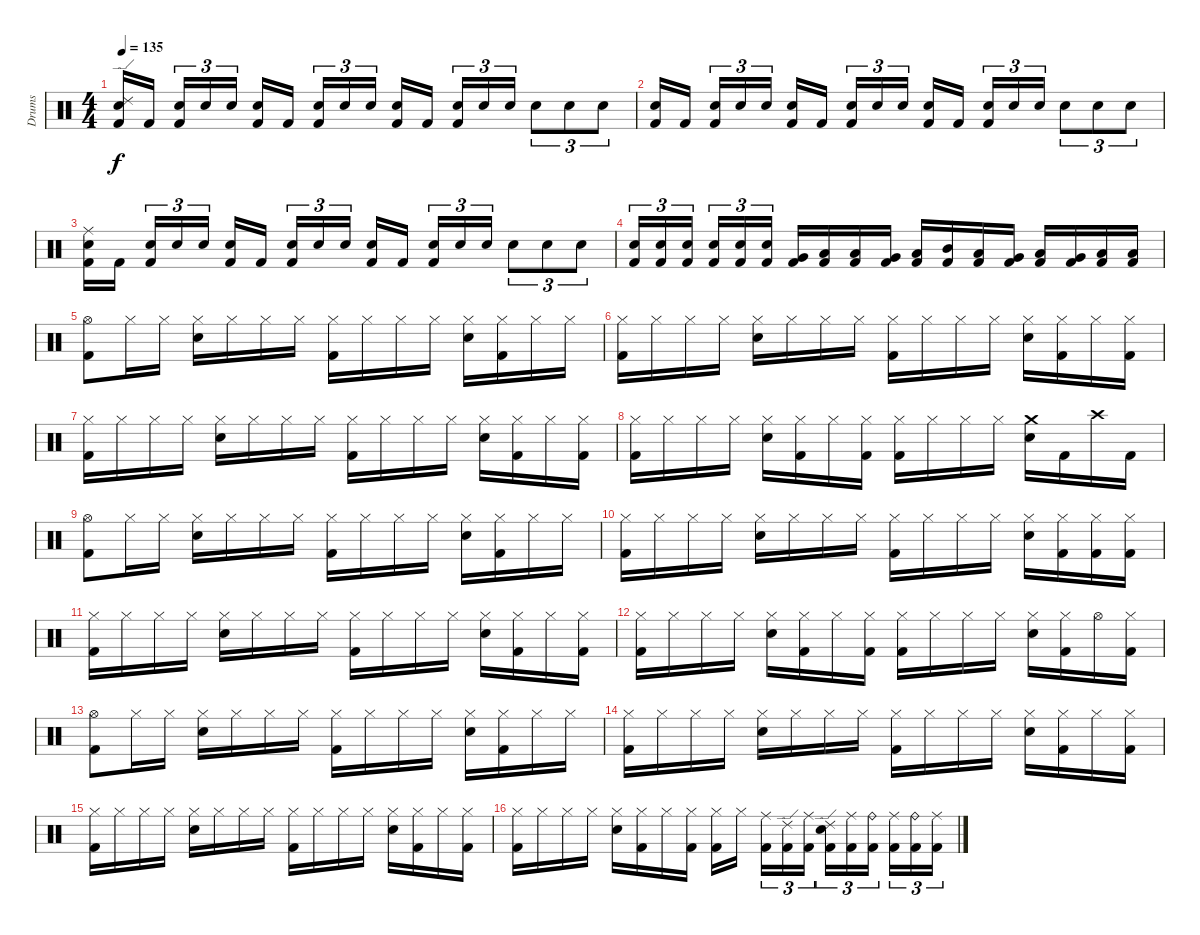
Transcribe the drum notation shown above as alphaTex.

\track ("Drums" "Drums") {instrument percussion}
\staff {score}
\articulation defaults
\ts (4 4)
\tempo 135
\clef neutral
\ks c
("Ride (edge) 2" "Electric Snare (hit)" "Kick (hit) 2").16{dy f} "Kick (hit) 2".16{beam splitsecondary} ("Electric Snare (hit)" "Kick (hit) 2").16{tu (3 2)} "Electric Snare (hit)".16{tu (3 2)} "Electric Snare (hit)".16{tu (3 2)} ("Electric Snare (hit)" "Kick (hit) 2").16 "Kick (hit) 2".16{beam splitsecondary} ("Electric Snare (hit)" "Kick (hit) 2").16{tu (3 2)} "Electric Snare (hit)".16{tu (3 2)} "Electric Snare (hit)".16{tu (3 2)} ("Electric Snare (hit)" "Kick (hit) 2").16 "Kick (hit) 2".16{beam splitsecondary} ("Electric Snare (hit)" "Kick (hit) 2").16{tu (3 2)} "Electric Snare (hit)".16{tu (3 2)} "Electric Snare (hit)".16{tu (3 2)} "Electric Snare (hit)".8{tu (3 2)} "Electric Snare (hit)".8{tu (3 2)} "Electric Snare (hit)".8{tu (3 2)} |
("Electric Snare (hit)" "Kick (hit) 2").16 "Kick (hit) 2".16{beam splitsecondary} ("Electric Snare (hit)" "Kick (hit) 2").16{tu (3 2)} "Electric Snare (hit)".16{tu (3 2)} "Electric Snare (hit)".16{tu (3 2)} ("Electric Snare (hit)" "Kick (hit) 2").16 "Kick (hit) 2".16{beam splitsecondary} ("Electric Snare (hit)" "Kick (hit) 2").16{tu (3 2)} "Electric Snare (hit)".16{tu (3 2)} "Electric Snare (hit)".16{tu (3 2)} ("Electric Snare (hit)" "Kick (hit) 2").16 "Kick (hit) 2".16{beam splitsecondary} ("Electric Snare (hit)" "Kick (hit) 2").16{tu (3 2)} "Electric Snare (hit)".16{tu (3 2)} "Electric Snare (hit)".16{tu (3 2)} "Electric Snare (hit)".8{tu (3 2)} "Electric Snare (hit)".8{tu (3 2)} "Electric Snare (hit)".8{tu (3 2)} |
("Ride (middle)" "Electric Snare (hit)" "Kick (hit) 2").16 "Kick (hit) 2".16{beam splitsecondary} ("Electric Snare (hit)" "Kick (hit) 2").16{tu (3 2)} "Electric Snare (hit)".16{tu (3 2)} "Electric Snare (hit)".16{tu (3 2)} ("Electric Snare (hit)" "Kick (hit) 2").16 "Kick (hit) 2".16{beam splitsecondary} ("Electric Snare (hit)" "Kick (hit) 2").16{tu (3 2)} "Electric Snare (hit)".16{tu (3 2)} "Electric Snare (hit)".16{tu (3 2)} ("Electric Snare (hit)" "Kick (hit) 2").16 "Kick (hit) 2".16{beam splitsecondary} ("Electric Snare (hit)" "Kick (hit) 2").16{tu (3 2)} "Electric Snare (hit)".16{tu (3 2)} "Electric Snare (hit)".16{tu (3 2)} "Electric Snare (hit)".8{tu (3 2)} "Electric Snare (hit)".8{tu (3 2)} "Electric Snare (hit)".8{tu (3 2)} |
("Electric Snare (hit)" "Kick (hit) 2").16{tu (3 2)} ("Electric Snare (hit)" "Kick (hit) 2").16{tu (3 2)} ("Electric Snare (hit)" "Kick (hit) 2").16{tu (3 2) beam splitsecondary} ("Electric Snare (hit)" "Kick (hit) 2").16{tu (3 2)} ("Electric Snare (hit)" "Kick (hit) 2").16{tu (3 2)} ("Electric Snare (hit)" "Kick (hit) 2").16{tu (3 2)} ("Very Low Tom (hit)" "Kick (hit) 2").16 ("Low Tom (hit)" "Kick (hit) 2").16 ("Low Floor Tom (hit)" "Kick (hit) 2").16 ("Very Low Tom (hit)" "Kick (hit) 2").16 ("Low Tom (hit)" "Kick (hit) 2").16 ("Mid Tom (hit)" "Kick (hit) 2").16 ("Low Tom (hit)" "Kick (hit) 2").16 ("Very Low Tom (hit)" "Kick (hit) 2").16 ("Low Floor Tom (hit)" "Kick (hit) 2").16 ("Very Low Tom (hit)" "Kick (hit) 2").16 ("Low Floor Tom (hit)" "Kick (hit) 2").16 ("Low Tom (hit)" "Kick (hit) 2").16 |
("Hi-Hat (open)" "Kick (hit) 2").8 "Hi-Hat (closed)".16 "Hi-Hat (closed)".16 ("Hi-Hat (closed)" "Electric Snare (hit)").16 "Hi-Hat (closed)".16 "Hi-Hat (closed)".16 "Hi-Hat (closed)".16 ("Hi-Hat (closed)" "Kick (hit) 2").16 "Hi-Hat (closed)".16 "Hi-Hat (closed)".16 "Hi-Hat (closed)".16 ("Hi-Hat (closed)" "Electric Snare (hit)").16 ("Hi-Hat (closed)" "Kick (hit) 2").16 "Hi-Hat (closed)".16 "Hi-Hat (closed)".16 |
("Hi-Hat (closed)" "Kick (hit) 2").16 "Hi-Hat (closed)".16 "Hi-Hat (closed)".16 "Hi-Hat (closed)".16 ("Hi-Hat (closed)" "Electric Snare (hit)").16 "Hi-Hat (closed)".16 "Hi-Hat (closed)".16 "Hi-Hat (closed)".16 ("Hi-Hat (closed)" "Kick (hit) 2").16 "Hi-Hat (closed)".16 "Hi-Hat (closed)".16 "Hi-Hat (closed)".16 ("Hi-Hat (closed)" "Electric Snare (hit)").16 ("Hi-Hat (closed)" "Kick (hit) 2").16 "Hi-Hat (closed)".16 ("Hi-Hat (closed)" "Kick (hit) 2").16 |
("Hi-Hat (closed)" "Kick (hit) 2").16 "Hi-Hat (closed)".16 "Hi-Hat (closed)".16 "Hi-Hat (closed)".16 ("Hi-Hat (closed)" "Electric Snare (hit)").16 "Hi-Hat (closed)".16 "Hi-Hat (closed)".16 "Hi-Hat (closed)".16 ("Hi-Hat (closed)" "Kick (hit) 2").16 "Hi-Hat (closed)".16 "Hi-Hat (closed)".16 "Hi-Hat (closed)".16 ("Hi-Hat (closed)" "Electric Snare (hit)").16 ("Hi-Hat (closed)" "Kick (hit) 2").16 "Hi-Hat (closed)".16 ("Hi-Hat (closed)" "Kick (hit) 2").16 |
("Hi-Hat (closed)" "Kick (hit) 2").16 "Hi-Hat (closed)".16 "Hi-Hat (closed)".16 "Hi-Hat (closed)".16 ("Hi-Hat (closed)" "Electric Snare (hit)").16 ("Hi-Hat (closed)" "Kick (hit) 2").16 "Hi-Hat (closed)".16 ("Hi-Hat (closed)" "Kick (hit) 2").16 ("Hi-Hat (closed)" "Kick (hit) 2").16 "Hi-Hat (closed)".16 "Hi-Hat (closed)".16 "Hi-Hat (closed)".16 ("Crash medium (hit)" "Electric Snare (hit)").16 "Kick (hit) 2".16 "Crash high (hit)".16 "Kick (hit) 2".16 |
("Hi-Hat (open)" "Kick (hit) 2").8 "Hi-Hat (closed)".16 "Hi-Hat (closed)".16 ("Hi-Hat (closed)" "Electric Snare (hit)").16 "Hi-Hat (closed)".16 "Hi-Hat (closed)".16 "Hi-Hat (closed)".16 ("Hi-Hat (closed)" "Kick (hit) 2").16 "Hi-Hat (closed)".16 "Hi-Hat (closed)".16 "Hi-Hat (closed)".16 ("Hi-Hat (closed)" "Electric Snare (hit)").16 ("Hi-Hat (closed)" "Kick (hit) 2").16 "Hi-Hat (closed)".16 "Hi-Hat (closed)".16 |
("Hi-Hat (closed)" "Kick (hit) 2").16 "Hi-Hat (closed)".16 "Hi-Hat (closed)".16 "Hi-Hat (closed)".16 ("Hi-Hat (closed)" "Electric Snare (hit)").16 "Hi-Hat (closed)".16 "Hi-Hat (closed)".16 "Hi-Hat (closed)".16 ("Hi-Hat (closed)" "Kick (hit) 2").16 "Hi-Hat (closed)".16 "Hi-Hat (closed)".16 "Hi-Hat (closed)".16 ("Hi-Hat (closed)" "Electric Snare (hit)").16 ("Hi-Hat (closed)" "Kick (hit) 2").16 ("Hi-Hat (closed)" "Kick (hit) 2").16 ("Hi-Hat (closed)" "Kick (hit) 2").16 |
("Hi-Hat (closed)" "Kick (hit) 2").16 "Hi-Hat (closed)".16 "Hi-Hat (closed)".16 "Hi-Hat (closed)".16 ("Hi-Hat (closed)" "Electric Snare (hit)").16 "Hi-Hat (closed)".16 "Hi-Hat (closed)".16 "Hi-Hat (closed)".16 ("Hi-Hat (closed)" "Kick (hit) 2").16 "Hi-Hat (closed)".16 "Hi-Hat (closed)".16 "Hi-Hat (closed)".16 ("Hi-Hat (closed)" "Electric Snare (hit)").16 ("Hi-Hat (closed)" "Kick (hit) 2").16 "Hi-Hat (closed)".16 ("Hi-Hat (closed)" "Kick (hit) 2").16 |
("Hi-Hat (closed)" "Kick (hit) 2").16 "Hi-Hat (closed)".16 "Hi-Hat (closed)".16 "Hi-Hat (closed)".16 ("Hi-Hat (closed)" "Electric Snare (hit)").16 ("Hi-Hat (closed)" "Kick (hit) 2").16 "Hi-Hat (closed)".16 ("Hi-Hat (closed)" "Kick (hit) 2").16 ("Hi-Hat (closed)" "Kick (hit) 2").16 "Hi-Hat (closed)".16 "Hi-Hat (closed)".16 "Hi-Hat (closed)".16 ("Hi-Hat (closed)" "Electric Snare (hit)").16 ("Hi-Hat (closed)" "Kick (hit) 2").16 "Hi-Hat (open)".16 ("Hi-Hat (closed)" "Kick (hit) 2").16 |
("Hi-Hat (open)" "Kick (hit) 2").8 "Hi-Hat (closed)".16 "Hi-Hat (closed)".16 ("Hi-Hat (closed)" "Electric Snare (hit)").16 "Hi-Hat (closed)".16 "Hi-Hat (closed)".16 "Hi-Hat (closed)".16 ("Hi-Hat (closed)" "Kick (hit) 2").16 "Hi-Hat (closed)".16 "Hi-Hat (closed)".16 "Hi-Hat (closed)".16 ("Hi-Hat (closed)" "Electric Snare (hit)").16 ("Hi-Hat (closed)" "Kick (hit) 2").16 "Hi-Hat (closed)".16 "Hi-Hat (closed)".16 |
("Hi-Hat (closed)" "Kick (hit) 2").16 "Hi-Hat (closed)".16 "Hi-Hat (closed)".16 "Hi-Hat (closed)".16 ("Hi-Hat (closed)" "Electric Snare (hit)").16 "Hi-Hat (closed)".16 "Hi-Hat (closed)".16 "Hi-Hat (closed)".16 ("Hi-Hat (closed)" "Kick (hit) 2").16 "Hi-Hat (closed)".16 "Hi-Hat (closed)".16 "Hi-Hat (closed)".16 ("Hi-Hat (closed)" "Electric Snare (hit)").16 ("Hi-Hat (closed)" "Kick (hit) 2").16 "Hi-Hat (closed)".16 ("Hi-Hat (closed)" "Kick (hit) 2").16 |
("Hi-Hat (closed)" "Kick (hit) 2").16 "Hi-Hat (closed)".16 "Hi-Hat (closed)".16 "Hi-Hat (closed)".16 ("Hi-Hat (closed)" "Electric Snare (hit)").16 "Hi-Hat (closed)".16 "Hi-Hat (closed)".16 "Hi-Hat (closed)".16 ("Hi-Hat (closed)" "Kick (hit) 2").16 "Hi-Hat (closed)".16 "Hi-Hat (closed)".16 "Hi-Hat (closed)".16 ("Hi-Hat (closed)" "Electric Snare (hit)").16 ("Hi-Hat (closed)" "Kick (hit) 2").16 "Hi-Hat (closed)".16 ("Hi-Hat (closed)" "Kick (hit) 2").16 |
("Hi-Hat (closed)" "Kick (hit) 2").16 "Hi-Hat (closed)".16 "Hi-Hat (closed)".16 "Hi-Hat (closed)".16 ("Hi-Hat (closed)" "Electric Snare (hit)").16 ("Hi-Hat (closed)" "Kick (hit) 2").16 "Hi-Hat (closed)".16 ("Hi-Hat (closed)" "Kick (hit) 2").16 ("Hi-Hat (closed)" "Kick (hit) 2").16 "Hi-Hat (closed)".16{beam splitsecondary} ("Ride (middle)" "Kick (hit) 2").16{tu (3 2)} ("Ride (edge) 2" "Kick (hit) 2").16{tu (3 2)} ("Ride (middle)" "Kick (hit) 2").16{tu (3 2)} ("Ride (edge) 2" "Electric Snare (hit)" "Kick (hit) 2").16{tu (3 2)} ("Ride (middle)" "Kick (hit) 2").16{tu (3 2)} ("Ride (bell)" "Kick (hit) 2").16{tu (3 2) beam splitsecondary} ("Ride (middle)" "Kick (hit) 2").16{tu (3 2)} ("Ride (bell)" "Kick (hit) 2").16{tu (3 2)} ("Ride (middle)" "Kick (hit) 2").16{tu (3 2)}
